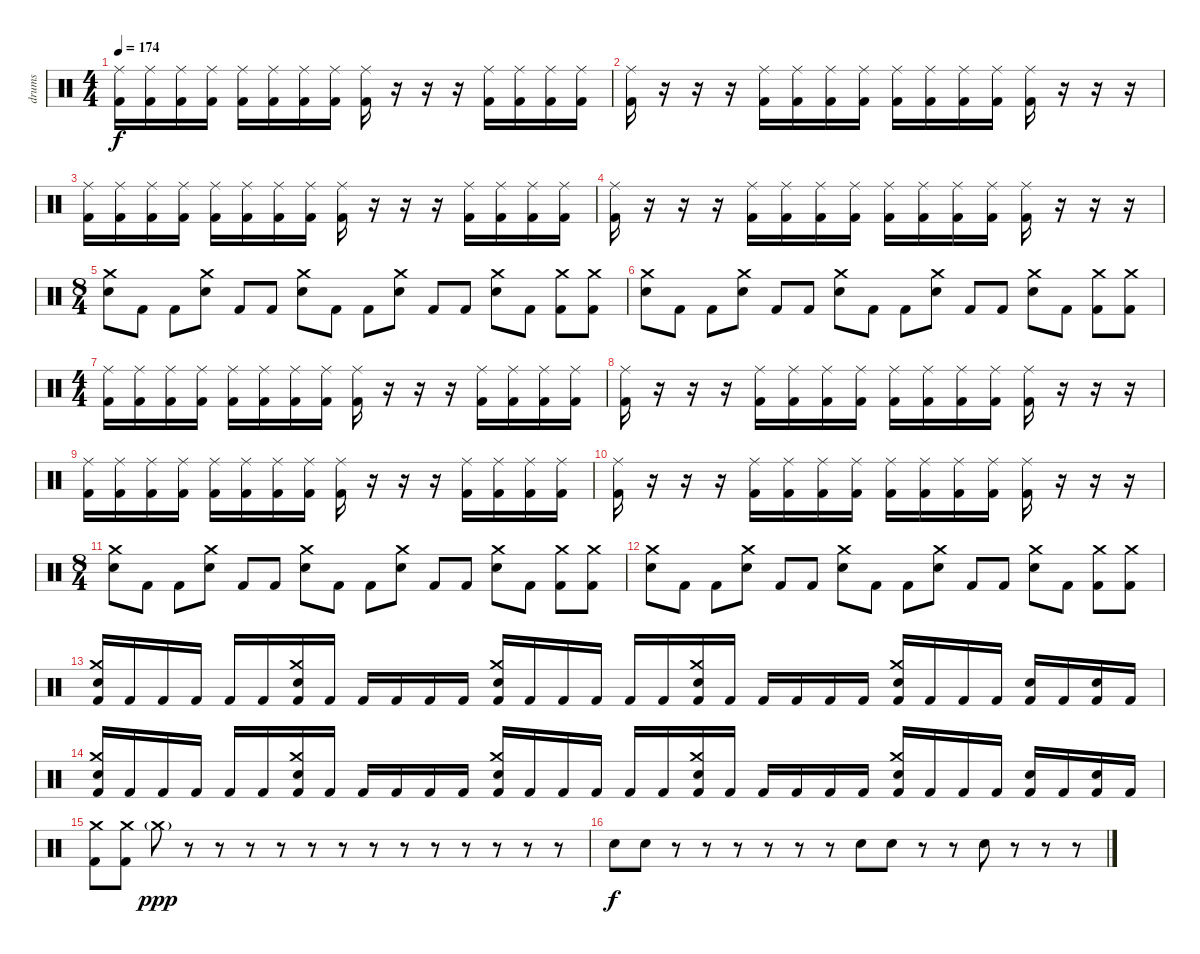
\track ("drums" "drums") {instrument percussion}
\staff {score}
\articulation defaults
\ts (4 4)
\tempo 174
\clef neutral
\ks c
("Ride (middle)" "Kick (hit) 2").16{dy f} ("Ride (middle)" "Kick (hit) 2").16 ("Ride (middle)" "Kick (hit) 2").16 ("Ride (middle)" "Kick (hit) 2").16 ("Ride (middle)" "Kick (hit) 2").16 ("Ride (middle)" "Kick (hit) 2").16 ("Ride (middle)" "Kick (hit) 2").16 ("Ride (middle)" "Kick (hit) 2").16 ("Ride (middle)" "Kick (hit) 2").16 r.16 r.16 r.16 ("Ride (middle)" "Kick (hit) 2").16 ("Ride (middle)" "Kick (hit) 2").16 ("Ride (middle)" "Kick (hit) 2").16 ("Ride (middle)" "Kick (hit) 2").16 |
("Ride (middle)" "Kick (hit) 2").16 r.16 r.16 r.16 ("Ride (middle)" "Kick (hit) 2").16 ("Ride (middle)" "Kick (hit) 2").16 ("Ride (middle)" "Kick (hit) 2").16 ("Ride (middle)" "Kick (hit) 2").16 ("Ride (middle)" "Kick (hit) 2").16 ("Ride (middle)" "Kick (hit) 2").16 ("Ride (middle)" "Kick (hit) 2").16 ("Ride (middle)" "Kick (hit) 2").16 ("Ride (middle)" "Kick (hit) 2").16 r.16 r.16 r.16 |
("Ride (middle)" "Kick (hit) 2").16 ("Ride (middle)" "Kick (hit) 2").16 ("Ride (middle)" "Kick (hit) 2").16 ("Ride (middle)" "Kick (hit) 2").16 ("Ride (middle)" "Kick (hit) 2").16 ("Ride (middle)" "Kick (hit) 2").16 ("Ride (middle)" "Kick (hit) 2").16 ("Ride (middle)" "Kick (hit) 2").16 ("Ride (middle)" "Kick (hit) 2").16 r.16 r.16 r.16 ("Ride (middle)" "Kick (hit) 2").16 ("Ride (middle)" "Kick (hit) 2").16 ("Ride (middle)" "Kick (hit) 2").16 ("Ride (middle)" "Kick (hit) 2").16 |
("Ride (middle)" "Kick (hit) 2").16 r.16 r.16 r.16 ("Ride (middle)" "Kick (hit) 2").16 ("Ride (middle)" "Kick (hit) 2").16 ("Ride (middle)" "Kick (hit) 2").16 ("Ride (middle)" "Kick (hit) 2").16 ("Ride (middle)" "Kick (hit) 2").16 ("Ride (middle)" "Kick (hit) 2").16 ("Ride (middle)" "Kick (hit) 2").16 ("Ride (middle)" "Kick (hit) 2").16 ("Ride (middle)" "Kick (hit) 2").16 r.16 r.16 r.16 |
\ts (8 4)
("Crash medium (hit)" "Electric Snare (hit)").8 "Kick (hit) 2".8 "Kick (hit) 2".8 ("Crash medium (hit)" "Electric Snare (hit)").8 "Kick (hit) 2".8 "Kick (hit) 2".8 ("Crash medium (hit)" "Electric Snare (hit)").8 "Kick (hit) 2".8 "Kick (hit) 2".8 ("Crash medium (hit)" "Electric Snare (hit)").8 "Kick (hit) 2".8 "Kick (hit) 2".8 ("Crash medium (hit)" "Electric Snare (hit)").8 "Kick (hit) 2".8 ("Crash medium (hit)" "Kick (hit) 2").8 ("Crash medium (hit)" "Kick (hit) 2").8 |
("Crash medium (hit)" "Electric Snare (hit)").8 "Kick (hit) 2".8 "Kick (hit) 2".8 ("Crash medium (hit)" "Electric Snare (hit)").8 "Kick (hit) 2".8 "Kick (hit) 2".8 ("Crash medium (hit)" "Electric Snare (hit)").8 "Kick (hit) 2".8 "Kick (hit) 2".8 ("Crash medium (hit)" "Electric Snare (hit)").8 "Kick (hit) 2".8 "Kick (hit) 2".8 ("Crash medium (hit)" "Electric Snare (hit)").8 "Kick (hit) 2".8 ("Crash medium (hit)" "Kick (hit) 2").8 ("Crash medium (hit)" "Kick (hit) 2").8 |
\ts (4 4)
("Ride (middle)" "Kick (hit) 2").16 ("Ride (middle)" "Kick (hit) 2").16 ("Ride (middle)" "Kick (hit) 2").16 ("Ride (middle)" "Kick (hit) 2").16 ("Ride (middle)" "Kick (hit) 2").16 ("Ride (middle)" "Kick (hit) 2").16 ("Ride (middle)" "Kick (hit) 2").16 ("Ride (middle)" "Kick (hit) 2").16 ("Ride (middle)" "Kick (hit) 2").16 r.16 r.16 r.16 ("Ride (middle)" "Kick (hit) 2").16 ("Ride (middle)" "Kick (hit) 2").16 ("Ride (middle)" "Kick (hit) 2").16 ("Ride (middle)" "Kick (hit) 2").16 |
("Ride (middle)" "Kick (hit) 2").16 r.16 r.16 r.16 ("Ride (middle)" "Kick (hit) 2").16 ("Ride (middle)" "Kick (hit) 2").16 ("Ride (middle)" "Kick (hit) 2").16 ("Ride (middle)" "Kick (hit) 2").16 ("Ride (middle)" "Kick (hit) 2").16 ("Ride (middle)" "Kick (hit) 2").16 ("Ride (middle)" "Kick (hit) 2").16 ("Ride (middle)" "Kick (hit) 2").16 ("Ride (middle)" "Kick (hit) 2").16 r.16 r.16 r.16 |
("Ride (middle)" "Kick (hit) 2").16 ("Ride (middle)" "Kick (hit) 2").16 ("Ride (middle)" "Kick (hit) 2").16 ("Ride (middle)" "Kick (hit) 2").16 ("Ride (middle)" "Kick (hit) 2").16 ("Ride (middle)" "Kick (hit) 2").16 ("Ride (middle)" "Kick (hit) 2").16 ("Ride (middle)" "Kick (hit) 2").16 ("Ride (middle)" "Kick (hit) 2").16 r.16 r.16 r.16 ("Ride (middle)" "Kick (hit) 2").16 ("Ride (middle)" "Kick (hit) 2").16 ("Ride (middle)" "Kick (hit) 2").16 ("Ride (middle)" "Kick (hit) 2").16 |
("Ride (middle)" "Kick (hit) 2").16 r.16 r.16 r.16 ("Ride (middle)" "Kick (hit) 2").16 ("Ride (middle)" "Kick (hit) 2").16 ("Ride (middle)" "Kick (hit) 2").16 ("Ride (middle)" "Kick (hit) 2").16 ("Ride (middle)" "Kick (hit) 2").16 ("Ride (middle)" "Kick (hit) 2").16 ("Ride (middle)" "Kick (hit) 2").16 ("Ride (middle)" "Kick (hit) 2").16 ("Ride (middle)" "Kick (hit) 2").16 r.16 r.16 r.16 |
\ts (8 4)
("Crash medium (hit)" "Electric Snare (hit)").8 "Kick (hit) 2".8 "Kick (hit) 2".8 ("Crash medium (hit)" "Electric Snare (hit)").8 "Kick (hit) 2".8 "Kick (hit) 2".8 ("Crash medium (hit)" "Electric Snare (hit)").8 "Kick (hit) 2".8 "Kick (hit) 2".8 ("Crash medium (hit)" "Electric Snare (hit)").8 "Kick (hit) 2".8 "Kick (hit) 2".8 ("Crash medium (hit)" "Electric Snare (hit)").8 "Kick (hit) 2".8 ("Crash medium (hit)" "Kick (hit) 2").8 ("Crash medium (hit)" "Kick (hit) 2").8 |
("Crash medium (hit)" "Electric Snare (hit)").8 "Kick (hit) 2".8 "Kick (hit) 2".8 ("Crash medium (hit)" "Electric Snare (hit)").8 "Kick (hit) 2".8 "Kick (hit) 2".8 ("Crash medium (hit)" "Electric Snare (hit)").8 "Kick (hit) 2".8 "Kick (hit) 2".8 ("Crash medium (hit)" "Electric Snare (hit)").8 "Kick (hit) 2".8 "Kick (hit) 2".8 ("Crash medium (hit)" "Electric Snare (hit)").8 "Kick (hit) 2".8 ("Crash medium (hit)" "Kick (hit) 2").8 ("Crash medium (hit)" "Kick (hit) 2").8 |
("Crash medium (hit)" "Electric Snare (hit)" "Kick (hit) 2").16 "Kick (hit) 2".16 "Kick (hit) 2".16 "Kick (hit) 2".16 "Kick (hit) 2".16 "Kick (hit) 2".16 ("Crash medium (hit)" "Electric Snare (hit)" "Kick (hit) 2").16 "Kick (hit) 2".16 "Kick (hit) 2".16 "Kick (hit) 2".16 "Kick (hit) 2".16 "Kick (hit) 2".16 ("Crash medium (hit)" "Electric Snare (hit)" "Kick (hit) 2").16 "Kick (hit) 2".16 "Kick (hit) 2".16 "Kick (hit) 2".16 "Kick (hit) 2".16 "Kick (hit) 2".16 ("Crash medium (hit)" "Electric Snare (hit)" "Kick (hit) 2").16 "Kick (hit) 2".16 "Kick (hit) 2".16 "Kick (hit) 2".16 "Kick (hit) 2".16 "Kick (hit) 2".16 ("Crash medium (hit)" "Electric Snare (hit)" "Kick (hit) 2").16 "Kick (hit) 2".16 "Kick (hit) 2".16 "Kick (hit) 2".16 ("Electric Snare (hit)" "Kick (hit) 2").16 "Kick (hit) 2".16 ("Electric Snare (hit)" "Kick (hit) 2").16 "Kick (hit) 2".16 |
("Crash medium (hit)" "Electric Snare (hit)" "Kick (hit) 2").16 "Kick (hit) 2".16 "Kick (hit) 2".16 "Kick (hit) 2".16 "Kick (hit) 2".16 "Kick (hit) 2".16 ("Crash medium (hit)" "Electric Snare (hit)" "Kick (hit) 2").16 "Kick (hit) 2".16 "Kick (hit) 2".16 "Kick (hit) 2".16 "Kick (hit) 2".16 "Kick (hit) 2".16 ("Crash medium (hit)" "Electric Snare (hit)" "Kick (hit) 2").16 "Kick (hit) 2".16 "Kick (hit) 2".16 "Kick (hit) 2".16 "Kick (hit) 2".16 "Kick (hit) 2".16 ("Crash medium (hit)" "Electric Snare (hit)" "Kick (hit) 2").16 "Kick (hit) 2".16 "Kick (hit) 2".16 "Kick (hit) 2".16 "Kick (hit) 2".16 "Kick (hit) 2".16 ("Crash medium (hit)" "Electric Snare (hit)" "Kick (hit) 2").16 "Kick (hit) 2".16 "Kick (hit) 2".16 "Kick (hit) 2".16 ("Electric Snare (hit)" "Kick (hit) 2").16 "Kick (hit) 2".16 ("Electric Snare (hit)" "Kick (hit) 2").16 "Kick (hit) 2".16 |
("Crash medium (hit)" "Kick (hit) 2").8 ("Crash medium (hit)" "Kick (hit) 2").8 "Crash medium (hit)"{g}.8{dy ppp} r.8 r.8 r.8 r.8 r.8 r.8 r.8 r.8 r.8 r.8 r.8 r.8 r.8 |
"Electric Snare (hit)".8{dy f} "Electric Snare (hit)".8 r.8 r.8 r.8 r.8 r.8 r.8 "Electric Snare (hit)".8 "Electric Snare (hit)".8 r.8 r.8 "Electric Snare (hit)".8 r.8 r.8 r.8
